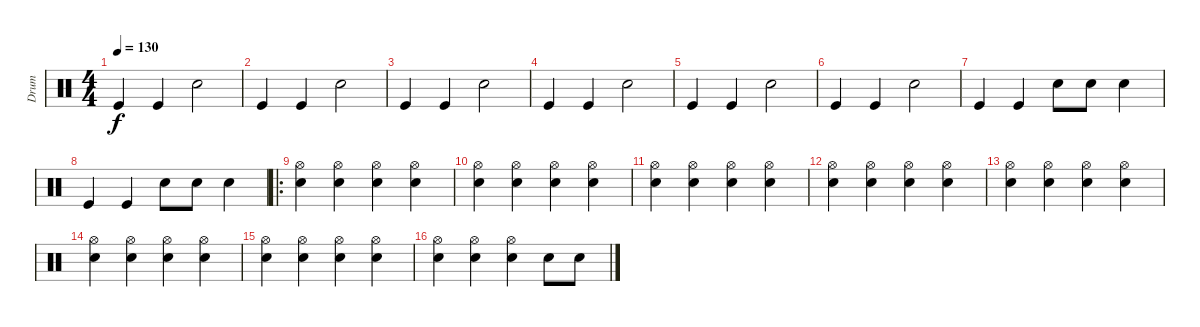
\track ("Drum" "Drum") {instrument percussion}
\staff {score}
\articulation defaults
\ts (4 4)
\tempo 130
\clef neutral
\ks c "Kick (hit)".4{dy f} "Kick (hit)".4 "Snare (hit) 2".2
|
"Kick (hit)".4 "Kick (hit)".4 "Snare (hit) 2".2 |
"Kick (hit)".4 "Kick (hit)".4 "Snare (hit) 2".2 |
"Kick (hit)".4 "Kick (hit)".4 "Snare (hit) 2".2 |
"Kick (hit)".4 "Kick (hit)".4 "Snare (hit) 2".2 |
"Kick (hit)".4 "Kick (hit)".4 "Snare (hit) 2".2 |
"Kick (hit)".4 "Kick (hit)".4 "Snare (hit) 2".8 "Snare (hit) 2".8 "Snare (hit) 2".4 |
"Kick (hit)".4 "Kick (hit)".4 "Snare (hit) 2".8 "Snare (hit) 2".8 "Snare (hit) 2".4 |
\ro
("Snare (hit) 2" "Hi-Hat (open)").4 ("Snare (hit) 2" "Hi-Hat (open)").4 ("Snare (hit) 2" "Hi-Hat (open)").4 ("Snare (hit) 2" "Hi-Hat (open)").4 |
("Snare (hit) 2" "Hi-Hat (open)").4 ("Snare (hit) 2" "Hi-Hat (open)").4 ("Snare (hit) 2" "Hi-Hat (open)").4 ("Snare (hit) 2" "Hi-Hat (open)").4 |
("Snare (hit) 2" "Hi-Hat (open)").4 ("Snare (hit) 2" "Hi-Hat (open)").4 ("Snare (hit) 2" "Hi-Hat (open)").4 ("Snare (hit) 2" "Hi-Hat (open)").4 |
("Snare (hit) 2" "Hi-Hat (open)").4 ("Snare (hit) 2" "Hi-Hat (open)").4 ("Snare (hit) 2" "Hi-Hat (open)").4 ("Snare (hit) 2" "Hi-Hat (open)").4 |
("Snare (hit) 2" "Hi-Hat (open)").4 ("Snare (hit) 2" "Hi-Hat (open)").4 ("Snare (hit) 2" "Hi-Hat (open)").4 ("Snare (hit) 2" "Hi-Hat (open)").4 |
("Snare (hit) 2" "Hi-Hat (open)").4 ("Snare (hit) 2" "Hi-Hat (open)").4 ("Snare (hit) 2" "Hi-Hat (open)").4 ("Snare (hit) 2" "Hi-Hat (open)").4 |
("Snare (hit) 2" "Hi-Hat (open)").4 ("Snare (hit) 2" "Hi-Hat (open)").4 ("Snare (hit) 2" "Hi-Hat (open)").4 ("Snare (hit) 2" "Hi-Hat (open)").4 |
("Snare (hit) 2" "Hi-Hat (open)").4 ("Snare (hit) 2" "Hi-Hat (open)").4 ("Snare (hit) 2" "Hi-Hat (open)").4 "Snare (hit) 2".8 "Snare (hit) 2".8
